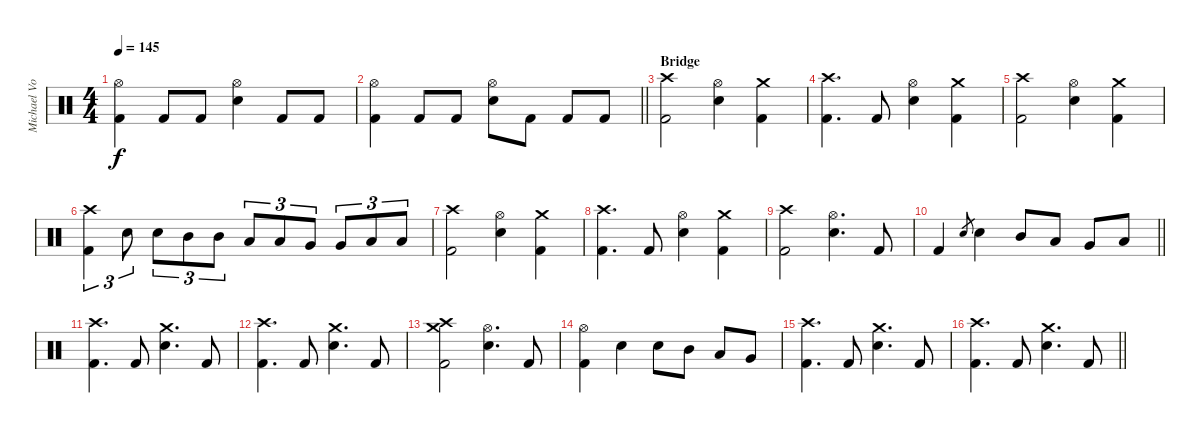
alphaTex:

\track ("Michael Von Knorring" "Michael Vo") {instrument percussion}
\staff {score}
\articulation defaults
\ts (4 4)
\tempo 145
\clef neutral
\ks c
("Hi-Hat (open)" "Kick (hit) 2").4{dy f} "Kick (hit) 2".8 "Kick (hit) 2".8 ("Hi-Hat (open)" "Snare (hit) 2").4 "Kick (hit) 2".8 "Kick (hit) 2".8 |
\barLineRight lightlight
("Hi-Hat (open)" "Kick (hit) 2").4 "Kick (hit) 2".8 "Kick (hit) 2".8 ("Hi-Hat (open)" "Snare (hit) 2").8 "Kick (hit) 2".8 "Kick (hit) 2".8 "Kick (hit) 2".8 |
\section ("" "Bridge")
("Crash high (hit)" "Kick (hit) 2").2 ("Hi-Hat (open)" "Snare (hit) 2").4 ("Crash medium (hit)" "Kick (hit) 2").4 |
("Crash high (hit)" "Kick (hit) 2").4{d} "Kick (hit) 2".8 ("Hi-Hat (open)" "Snare (hit) 2").4 ("Crash medium (hit)" "Kick (hit) 2").4 |
("Crash high (hit)" "Kick (hit) 2").2 ("Hi-Hat (open)" "Snare (hit) 2").4 ("Crash medium (hit)" "Kick (hit) 2").4 |
("Crash high (hit)" "Kick (hit) 2").4{tu (3 2)} "Snare (hit) 2".8{tu (3 2)} "Snare (hit) 2".8{tu (3 2)} "Mid Tom (hit)".8{tu (3 2)} "Mid Tom (hit)".8{tu (3 2)} "Low Tom (hit)".8{tu (3 2)} "Low Tom (hit)".8{tu (3 2)} "Very Low Tom (hit)".8{tu (3 2)} "Very Low Tom (hit)".8{tu (3 2)} "Low Floor Tom (hit)".8{tu (3 2)} "Low Floor Tom (hit)".8{tu (3 2)} |
("Crash high (hit)" "Kick (hit) 2").2 ("Hi-Hat (open)" "Snare (hit) 2").4 ("Crash medium (hit)" "Kick (hit) 2").4 |
("Crash high (hit)" "Kick (hit) 2").4{d} "Kick (hit) 2".8 ("Hi-Hat (open)" "Snare (hit) 2").4 ("Crash medium (hit)" "Kick (hit) 2").4 |
("Crash high (hit)" "Kick (hit) 2").2 ("Hi-Hat (open)" "Snare (hit) 2").4{d} "Kick (hit) 2".8 |
\barLineRight lightlight "Kick (hit) 2".4 "Snare (hit) 2".8{gr} "Snare (hit) 2".4 "Mid Tom (hit)".8 "Low Tom (hit)".8 "Very Low Tom (hit)".8 "Low Floor Tom (hit)".8
|
("Crash high (hit)" "Kick (hit) 2").4{d} "Kick (hit) 2".8 ("Crash medium (hit)" "Snare (hit) 2").4{d} "Kick (hit) 2".8 |
("Crash high (hit)" "Kick (hit) 2").4{d} "Kick (hit) 2".8 ("Crash medium (hit)" "Snare (hit) 2").4{d} "Kick (hit) 2".8 |
("Crash medium (hit)" "Crash high (hit)" "Kick (hit) 2").2 ("Hi-Hat (open)" "Snare (hit) 2").4{d} "Kick (hit) 2".8 |
("Hi-Hat (open)" "Kick (hit) 2").4 "Snare (hit) 2".4 "Snare (hit) 2".8 "Mid Tom (hit)".8 "Low Tom (hit)".8 "Very Low Tom (hit)".8 |
("Crash high (hit)" "Kick (hit) 2").4{d} "Kick (hit) 2".8 ("Crash medium (hit)" "Snare (hit) 2").4{d} "Kick (hit) 2".8 |
\barLineRight lightlight
("Crash high (hit)" "Kick (hit) 2").4{d} "Kick (hit) 2".8 ("Crash medium (hit)" "Snare (hit) 2").4{d} "Kick (hit) 2".8
